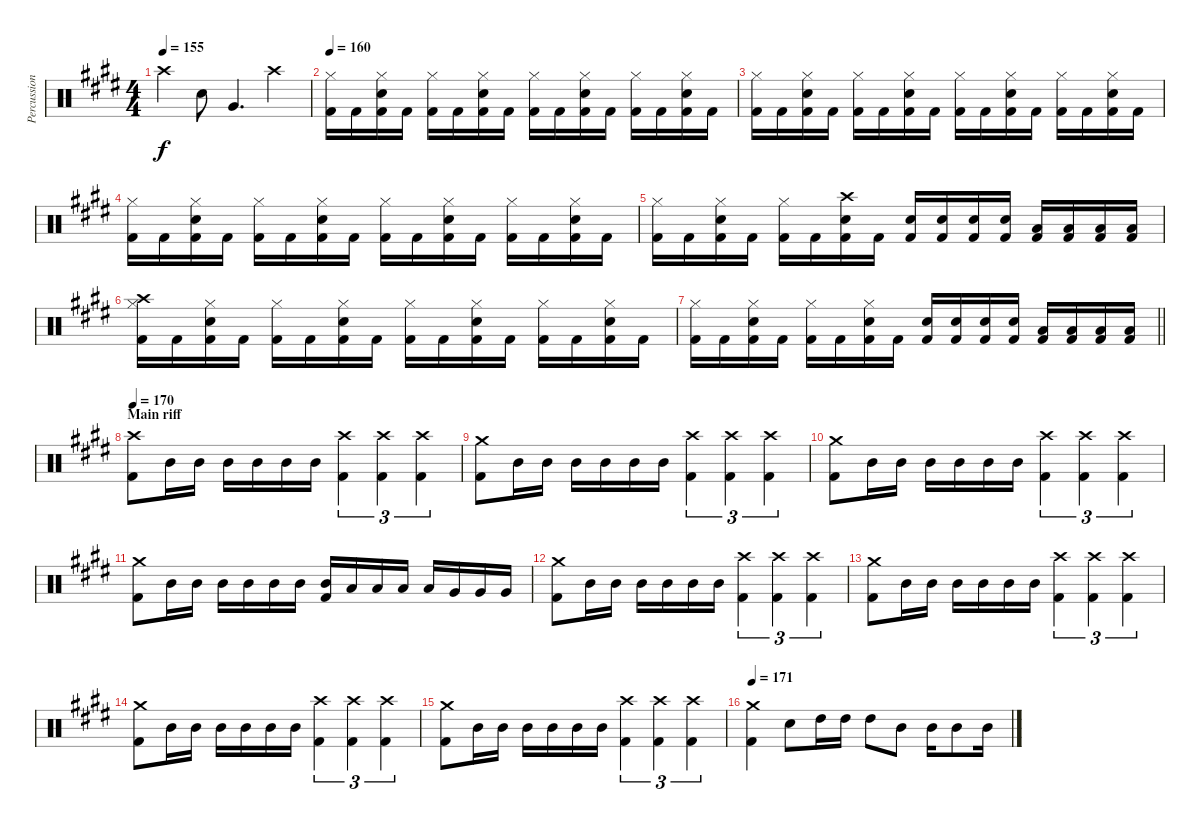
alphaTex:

\track ("Percussion (Thomen Stauch)" "Percussion") {instrument percussion}
\staff {score}
\articulation defaults
\ts (4 4)
\tempo 155
\clef neutral
\ks c#minor "Crash high (hit)".4{dy f} "Snare (hit) 2".8 "Very Low Tom (hit)".4{d} "Crash high (hit)".4
|
\tempo 160
("Hi-Hat (closed)" "Kick (hit) 2").16 "Kick (hit) 2".16 ("Hi-Hat (closed)" "Snare (hit) 2" "Kick (hit) 2").16 "Kick (hit) 2".16 ("Hi-Hat (closed)" "Kick (hit) 2").16 "Kick (hit) 2".16 ("Hi-Hat (closed)" "Snare (hit) 2" "Kick (hit) 2").16 "Kick (hit) 2".16 ("Hi-Hat (closed)" "Kick (hit) 2").16 "Kick (hit) 2".16 ("Hi-Hat (closed)" "Snare (hit) 2" "Kick (hit) 2").16 "Kick (hit) 2".16 ("Hi-Hat (closed)" "Kick (hit) 2").16 "Kick (hit) 2".16 ("Hi-Hat (closed)" "Snare (hit) 2" "Kick (hit) 2").16 "Kick (hit) 2".16 |
("Hi-Hat (closed)" "Kick (hit) 2").16 "Kick (hit) 2".16 ("Hi-Hat (closed)" "Snare (hit) 2" "Kick (hit) 2").16 "Kick (hit) 2".16 ("Hi-Hat (closed)" "Kick (hit) 2").16 "Kick (hit) 2".16 ("Hi-Hat (closed)" "Snare (hit) 2" "Kick (hit) 2").16 "Kick (hit) 2".16 ("Hi-Hat (closed)" "Kick (hit) 2").16 "Kick (hit) 2".16 ("Hi-Hat (closed)" "Snare (hit) 2" "Kick (hit) 2").16 "Kick (hit) 2".16 ("Hi-Hat (closed)" "Kick (hit) 2").16 "Kick (hit) 2".16 ("Hi-Hat (closed)" "Snare (hit) 2" "Kick (hit) 2").16 "Kick (hit) 2".16 |
("Hi-Hat (closed)" "Kick (hit) 2").16 "Kick (hit) 2".16 ("Hi-Hat (closed)" "Snare (hit) 2" "Kick (hit) 2").16 "Kick (hit) 2".16 ("Hi-Hat (closed)" "Kick (hit) 2").16 "Kick (hit) 2".16 ("Hi-Hat (closed)" "Snare (hit) 2" "Kick (hit) 2").16 "Kick (hit) 2".16 ("Hi-Hat (closed)" "Kick (hit) 2").16 "Kick (hit) 2".16 ("Hi-Hat (closed)" "Snare (hit) 2" "Kick (hit) 2").16 "Kick (hit) 2".16 ("Hi-Hat (closed)" "Kick (hit) 2").16 "Kick (hit) 2".16 ("Hi-Hat (closed)" "Snare (hit) 2" "Kick (hit) 2").16 "Kick (hit) 2".16 |
("Hi-Hat (closed)" "Kick (hit) 2").16 "Kick (hit) 2".16 ("Hi-Hat (closed)" "Snare (hit) 2" "Kick (hit) 2").16 "Kick (hit) 2".16 ("Hi-Hat (closed)" "Kick (hit) 2").16 "Kick (hit) 2".16 ("Crash high (hit)" "Snare (hit) 2" "Kick (hit) 2").16 "Kick (hit) 2".16 ("Snare (hit) 2" "Kick (hit) 2").16 ("Snare (hit) 2" "Kick (hit) 2").16 ("Snare (hit) 2" "Kick (hit) 2").16 ("Snare (hit) 2" "Kick (hit) 2").16 ("Low Tom (hit)" "Kick (hit) 2").16 ("Low Tom (hit)" "Kick (hit) 2").16 ("Low Tom (hit)" "Kick (hit) 2").16 ("Low Tom (hit)" "Kick (hit) 2").16 |
("Crash high (hit)" "Hi-Hat (closed)" "Kick (hit) 2").16 "Kick (hit) 2".16 ("Hi-Hat (closed)" "Snare (hit) 2" "Kick (hit) 2").16 "Kick (hit) 2".16 ("Hi-Hat (closed)" "Kick (hit) 2").16 "Kick (hit) 2".16 ("Hi-Hat (closed)" "Snare (hit) 2" "Kick (hit) 2").16 "Kick (hit) 2".16 ("Hi-Hat (closed)" "Kick (hit) 2").16 "Kick (hit) 2".16 ("Hi-Hat (closed)" "Snare (hit) 2" "Kick (hit) 2").16 "Kick (hit) 2".16 ("Hi-Hat (closed)" "Kick (hit) 2").16 "Kick (hit) 2".16 ("Hi-Hat (closed)" "Snare (hit) 2" "Kick (hit) 2").16 "Kick (hit) 2".16 |
\barLineRight lightlight
("Hi-Hat (closed)" "Kick (hit) 2").16 "Kick (hit) 2".16 ("Hi-Hat (closed)" "Snare (hit) 2" "Kick (hit) 2").16 "Kick (hit) 2".16 ("Hi-Hat (closed)" "Kick (hit) 2").16 "Kick (hit) 2".16 ("Hi-Hat (closed)" "Snare (hit) 2" "Kick (hit) 2").16 "Kick (hit) 2".16 ("Snare (hit) 2" "Kick (hit) 2").16 ("Snare (hit) 2" "Kick (hit) 2").16 ("Snare (hit) 2" "Kick (hit) 2").16 ("Snare (hit) 2" "Kick (hit) 2").16 ("Low Tom (hit)" "Kick (hit) 2").16 ("Low Tom (hit)" "Kick (hit) 2").16 ("Low Tom (hit)" "Kick (hit) 2").16 ("Low Tom (hit)" "Kick (hit) 2").16 |
\section ("" "Main riff")
\tempo 170
("Crash high (hit)" "Kick (hit) 2").8 "Mid Tom (hit)".16 "Mid Tom (hit)".16 "Mid Tom (hit)".16 "Mid Tom (hit)".16 "Mid Tom (hit)".16 "Mid Tom (hit)".16 ("Crash high (hit)" "Kick (hit) 2").4{tu (3 2)} ("Crash high (hit)" "Kick (hit) 2").4{tu (3 2)} ("Crash high (hit)" "Kick (hit) 2").4{tu (3 2)} |
("Crash medium (hit)" "Kick (hit) 2").8 "Mid Tom (hit)".16 "Mid Tom (hit)".16 "Mid Tom (hit)".16 "Mid Tom (hit)".16 "Mid Tom (hit)".16 "Mid Tom (hit)".16 ("Crash high (hit)" "Kick (hit) 2").4{tu (3 2)} ("Crash high (hit)" "Kick (hit) 2").4{tu (3 2)} ("Crash high (hit)" "Kick (hit) 2").4{tu (3 2)} |
("Crash medium (hit)" "Kick (hit) 2").8 "Mid Tom (hit)".16 "Mid Tom (hit)".16 "Mid Tom (hit)".16 "Mid Tom (hit)".16 "Mid Tom (hit)".16 "Mid Tom (hit)".16 ("Crash high (hit)" "Kick (hit) 2").4{tu (3 2)} ("Crash high (hit)" "Kick (hit) 2").4{tu (3 2)} ("Crash high (hit)" "Kick (hit) 2").4{tu (3 2)} |
("Crash medium (hit)" "Kick (hit) 2").8 "Mid Tom (hit)".16 "Mid Tom (hit)".16 "Mid Tom (hit)".16 "Mid Tom (hit)".16 "Mid Tom (hit)".16 "Mid Tom (hit)".16 ("Mid Tom (hit)" "Kick (hit) 2").16 "Low Tom (hit)".16 "Low Tom (hit)".16 "Low Tom (hit)".16 "Low Tom (hit)".16 "Very Low Tom (hit)".16 "Very Low Tom (hit)".16 "Very Low Tom (hit)".16 |
("Crash medium (hit)" "Kick (hit) 2").8 "Mid Tom (hit)".16 "Mid Tom (hit)".16 "Mid Tom (hit)".16 "Mid Tom (hit)".16 "Mid Tom (hit)".16 "Mid Tom (hit)".16 ("Crash high (hit)" "Kick (hit) 2").4{tu (3 2)} ("Crash high (hit)" "Kick (hit) 2").4{tu (3 2)} ("Crash high (hit)" "Kick (hit) 2").4{tu (3 2)} |
("Crash medium (hit)" "Kick (hit) 2").8 "Mid Tom (hit)".16 "Mid Tom (hit)".16 "Mid Tom (hit)".16 "Mid Tom (hit)".16 "Mid Tom (hit)".16 "Mid Tom (hit)".16 ("Crash high (hit)" "Kick (hit) 2").4{tu (3 2)} ("Crash high (hit)" "Kick (hit) 2").4{tu (3 2)} ("Crash high (hit)" "Kick (hit) 2").4{tu (3 2)} |
("Crash medium (hit)" "Kick (hit) 2").8 "Mid Tom (hit)".16 "Mid Tom (hit)".16 "Mid Tom (hit)".16 "Mid Tom (hit)".16 "Mid Tom (hit)".16 "Mid Tom (hit)".16 ("Crash high (hit)" "Kick (hit) 2").4{tu (3 2)} ("Crash high (hit)" "Kick (hit) 2").4{tu (3 2)} ("Crash high (hit)" "Kick (hit) 2").4{tu (3 2)} |
("Crash medium (hit)" "Kick (hit) 2").8 "Mid Tom (hit)".16 "Mid Tom (hit)".16 "Mid Tom (hit)".16 "Mid Tom (hit)".16 "Mid Tom (hit)".16 "Mid Tom (hit)".16 ("Crash high (hit)" "Kick (hit) 2").4{tu (3 2)} ("Crash high (hit)" "Kick (hit) 2").4{tu (3 2)} ("Crash high (hit)" "Kick (hit) 2").4{tu (3 2)} |
\tempo 171
("Crash medium (hit)" "Kick (hit) 2").4 "Snare (hit) 2".8 "High Tom (hit)".16 "High Tom (hit)".16 "High Tom (hit)".8 "Mid Tom (hit)".8 "Mid Tom (hit)".16 "Mid Tom (hit)".8 "Mid Tom (hit)".16
